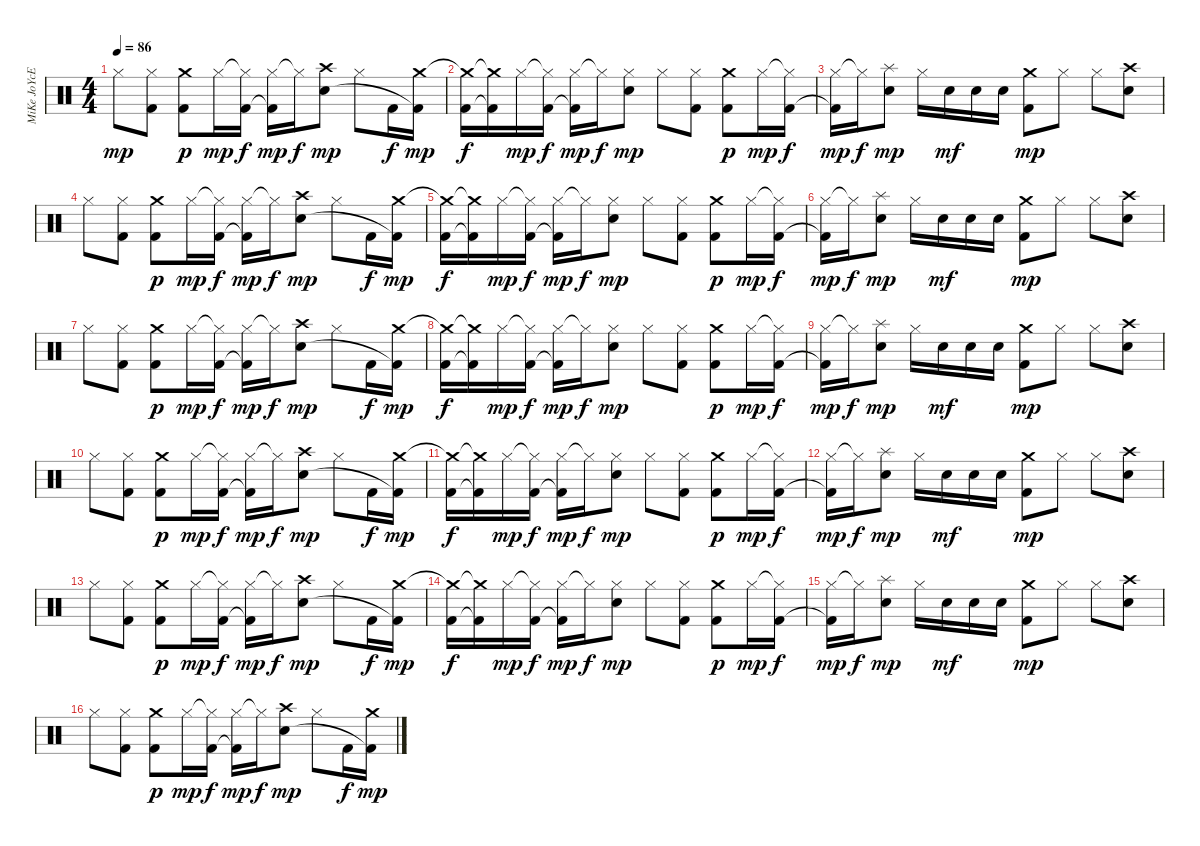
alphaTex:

\track ("MiKe JoYcE" "MiKe JoYcE") {instrument percussion}
\staff {score}
\articulation defaults
\ts (4 4)
\tempo 86
\clef neutral
\ks c "Hi-Hat (closed)".8{dy mp}
("Hi-Hat (closed)" "Kick (hit) 2").8 ("Crash medium (hit)" "Kick (hit) 2").8{dy p} "Hi-Hat (closed)".16{dy mp} ("Hi-Hat (closed)"{t} "Kick (hit) 2").16{dy f} ("Hi-Hat (closed)" "Kick (hit) 2"{t}).16{dy mp} "Hi-Hat (closed)"{t}.16{dy f} ("Crash high (hit)" "Electric Snare (hit)").8{dy mp} "Hi-Hat (closed)".8 "Kick (hit) 2".16{dy f} ("Crash medium (hit)" "Kick (hit) 2"{t}).16{dy mp} |
("Crash medium (hit)"{t} "Kick (hit) 2").16{dy f} ("Crash medium (hit)"{t} "Kick (hit) 2"{t}).16 "Hi-Hat (closed)".16{dy mp} ("Hi-Hat (closed)"{t} "Kick (hit) 2").16{dy f} ("Hi-Hat (closed)" "Kick (hit) 2"{t}).16{dy mp} "Hi-Hat (closed)"{t}.16{dy f} ("Hi-Hat (closed)" "Electric Snare (hit)").8{dy mp} "Hi-Hat (closed)".8 ("Hi-Hat (closed)" "Kick (hit) 2").8 ("Crash medium (hit)" "Kick (hit) 2").8{dy p} "Hi-Hat (closed)".16{dy mp} ("Hi-Hat (closed)"{t} "Kick (hit) 2").16{dy f} |
("Hi-Hat (closed)" "Kick (hit) 2"{t}).16{dy mp} "Hi-Hat (closed)"{t}.16{dy f} ("Splash (hit)" "Electric Snare (hit)").8{dy mp} "Hi-Hat (closed)".16 "Electric Snare (hit)".16{dy mf} "Electric Snare (hit)".16 "Electric Snare (hit)".16 ("Crash medium (hit)" "Kick (hit) 2").8{dy mp} "Hi-Hat (closed)".8 "Hi-Hat (closed)".8 ("Crash high (hit)" "Electric Snare (hit)").8 |
"Hi-Hat (closed)".8 ("Hi-Hat (closed)" "Kick (hit) 2").8 ("Crash medium (hit)" "Kick (hit) 2").8{dy p} "Hi-Hat (closed)".16{dy mp} ("Hi-Hat (closed)"{t} "Kick (hit) 2").16{dy f} ("Hi-Hat (closed)" "Kick (hit) 2"{t}).16{dy mp} "Hi-Hat (closed)"{t}.16{dy f} ("Crash high (hit)" "Electric Snare (hit)").8{dy mp} "Hi-Hat (closed)".8 "Kick (hit) 2".16{dy f} ("Crash medium (hit)" "Kick (hit) 2"{t}).16{dy mp} |
("Crash medium (hit)"{t} "Kick (hit) 2").16{dy f} ("Crash medium (hit)"{t} "Kick (hit) 2"{t}).16 "Hi-Hat (closed)".16{dy mp} ("Hi-Hat (closed)"{t} "Kick (hit) 2").16{dy f} ("Hi-Hat (closed)" "Kick (hit) 2"{t}).16{dy mp} "Hi-Hat (closed)"{t}.16{dy f} ("Hi-Hat (closed)" "Electric Snare (hit)").8{dy mp} "Hi-Hat (closed)".8 ("Hi-Hat (closed)" "Kick (hit) 2").8 ("Crash medium (hit)" "Kick (hit) 2").8{dy p} "Hi-Hat (closed)".16{dy mp} ("Hi-Hat (closed)"{t} "Kick (hit) 2").16{dy f} |
("Hi-Hat (closed)" "Kick (hit) 2"{t}).16{dy mp} "Hi-Hat (closed)"{t}.16{dy f} ("Splash (hit)" "Electric Snare (hit)").8{dy mp} "Hi-Hat (closed)".16 "Electric Snare (hit)".16{dy mf} "Electric Snare (hit)".16 "Electric Snare (hit)".16 ("Crash medium (hit)" "Kick (hit) 2").8{dy mp} "Hi-Hat (closed)".8 "Hi-Hat (closed)".8 ("Crash high (hit)" "Electric Snare (hit)").8 |
"Hi-Hat (closed)".8 ("Hi-Hat (closed)" "Kick (hit) 2").8 ("Crash medium (hit)" "Kick (hit) 2").8{dy p} "Hi-Hat (closed)".16{dy mp} ("Hi-Hat (closed)"{t} "Kick (hit) 2").16{dy f} ("Hi-Hat (closed)" "Kick (hit) 2"{t}).16{dy mp} "Hi-Hat (closed)"{t}.16{dy f} ("Crash high (hit)" "Electric Snare (hit)").8{dy mp} "Hi-Hat (closed)".8 "Kick (hit) 2".16{dy f} ("Crash medium (hit)" "Kick (hit) 2"{t}).16{dy mp} |
("Crash medium (hit)"{t} "Kick (hit) 2").16{dy f} ("Crash medium (hit)"{t} "Kick (hit) 2"{t}).16 "Hi-Hat (closed)".16{dy mp} ("Hi-Hat (closed)"{t} "Kick (hit) 2").16{dy f} ("Hi-Hat (closed)" "Kick (hit) 2"{t}).16{dy mp} "Hi-Hat (closed)"{t}.16{dy f} ("Hi-Hat (closed)" "Electric Snare (hit)").8{dy mp} "Hi-Hat (closed)".8 ("Hi-Hat (closed)" "Kick (hit) 2").8 ("Crash medium (hit)" "Kick (hit) 2").8{dy p} "Hi-Hat (closed)".16{dy mp} ("Hi-Hat (closed)"{t} "Kick (hit) 2").16{dy f} |
("Hi-Hat (closed)" "Kick (hit) 2"{t}).16{dy mp} "Hi-Hat (closed)"{t}.16{dy f} ("Splash (hit)" "Electric Snare (hit)").8{dy mp} "Hi-Hat (closed)".16 "Electric Snare (hit)".16{dy mf} "Electric Snare (hit)".16 "Electric Snare (hit)".16 ("Crash medium (hit)" "Kick (hit) 2").8{dy mp} "Hi-Hat (closed)".8 "Hi-Hat (closed)".8 ("Crash high (hit)" "Electric Snare (hit)").8 |
"Hi-Hat (closed)".8 ("Hi-Hat (closed)" "Kick (hit) 2").8 ("Crash medium (hit)" "Kick (hit) 2").8{dy p} "Hi-Hat (closed)".16{dy mp} ("Hi-Hat (closed)"{t} "Kick (hit) 2").16{dy f} ("Hi-Hat (closed)" "Kick (hit) 2"{t}).16{dy mp} "Hi-Hat (closed)"{t}.16{dy f} ("Crash high (hit)" "Electric Snare (hit)").8{dy mp} "Hi-Hat (closed)".8 "Kick (hit) 2".16{dy f} ("Crash medium (hit)" "Kick (hit) 2"{t}).16{dy mp} |
("Crash medium (hit)"{t} "Kick (hit) 2").16{dy f} ("Crash medium (hit)"{t} "Kick (hit) 2"{t}).16 "Hi-Hat (closed)".16{dy mp} ("Hi-Hat (closed)"{t} "Kick (hit) 2").16{dy f} ("Hi-Hat (closed)" "Kick (hit) 2"{t}).16{dy mp} "Hi-Hat (closed)"{t}.16{dy f} ("Hi-Hat (closed)" "Electric Snare (hit)").8{dy mp} "Hi-Hat (closed)".8 ("Hi-Hat (closed)" "Kick (hit) 2").8 ("Crash medium (hit)" "Kick (hit) 2").8{dy p} "Hi-Hat (closed)".16{dy mp} ("Hi-Hat (closed)"{t} "Kick (hit) 2").16{dy f} |
("Hi-Hat (closed)" "Kick (hit) 2"{t}).16{dy mp} "Hi-Hat (closed)"{t}.16{dy f} ("Splash (hit)" "Electric Snare (hit)").8{dy mp} "Hi-Hat (closed)".16 "Electric Snare (hit)".16{dy mf} "Electric Snare (hit)".16 "Electric Snare (hit)".16 ("Crash medium (hit)" "Kick (hit) 2").8{dy mp} "Hi-Hat (closed)".8 "Hi-Hat (closed)".8 ("Crash high (hit)" "Electric Snare (hit)").8 |
"Hi-Hat (closed)".8 ("Hi-Hat (closed)" "Kick (hit) 2").8 ("Crash medium (hit)" "Kick (hit) 2").8{dy p} "Hi-Hat (closed)".16{dy mp} ("Hi-Hat (closed)"{t} "Kick (hit) 2").16{dy f} ("Hi-Hat (closed)" "Kick (hit) 2"{t}).16{dy mp} "Hi-Hat (closed)"{t}.16{dy f} ("Crash high (hit)" "Electric Snare (hit)").8{dy mp} "Hi-Hat (closed)".8 "Kick (hit) 2".16{dy f} ("Crash medium (hit)" "Kick (hit) 2"{t}).16{dy mp} |
("Crash medium (hit)"{t} "Kick (hit) 2").16{dy f} ("Crash medium (hit)"{t} "Kick (hit) 2"{t}).16 "Hi-Hat (closed)".16{dy mp} ("Hi-Hat (closed)"{t} "Kick (hit) 2").16{dy f} ("Hi-Hat (closed)" "Kick (hit) 2"{t}).16{dy mp} "Hi-Hat (closed)"{t}.16{dy f} ("Hi-Hat (closed)" "Electric Snare (hit)").8{dy mp} "Hi-Hat (closed)".8 ("Hi-Hat (closed)" "Kick (hit) 2").8 ("Crash medium (hit)" "Kick (hit) 2").8{dy p} "Hi-Hat (closed)".16{dy mp} ("Hi-Hat (closed)"{t} "Kick (hit) 2").16{dy f} |
("Hi-Hat (closed)" "Kick (hit) 2"{t}).16{dy mp} "Hi-Hat (closed)"{t}.16{dy f} ("Splash (hit)" "Electric Snare (hit)").8{dy mp} "Hi-Hat (closed)".16 "Electric Snare (hit)".16{dy mf} "Electric Snare (hit)".16 "Electric Snare (hit)".16 ("Crash medium (hit)" "Kick (hit) 2").8{dy mp} "Hi-Hat (closed)".8 "Hi-Hat (closed)".8 ("Crash high (hit)" "Electric Snare (hit)").8 |
"Hi-Hat (closed)".8 ("Hi-Hat (closed)" "Kick (hit) 2").8 ("Crash medium (hit)" "Kick (hit) 2").8{dy p} "Hi-Hat (closed)".16{dy mp} ("Hi-Hat (closed)"{t} "Kick (hit) 2").16{dy f} ("Hi-Hat (closed)" "Kick (hit) 2"{t}).16{dy mp} "Hi-Hat (closed)"{t}.16{dy f} ("Crash high (hit)" "Electric Snare (hit)").8{dy mp} "Hi-Hat (closed)".8 "Kick (hit) 2".16{dy f} ("Crash medium (hit)" "Kick (hit) 2"{t}).16{dy mp}
